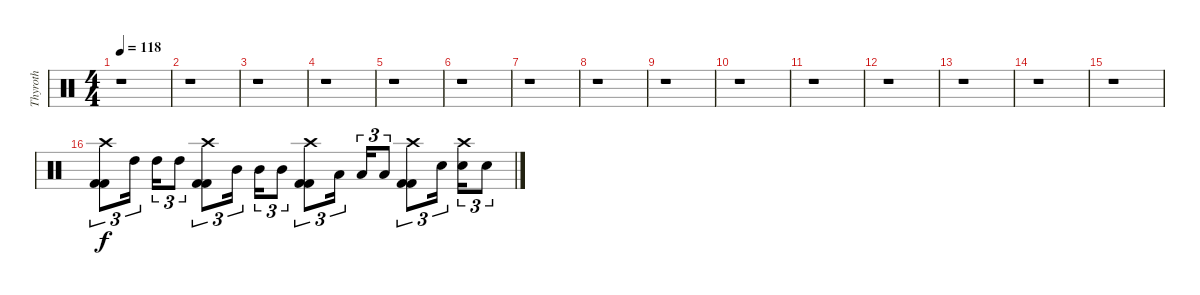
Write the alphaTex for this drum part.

\track ("Thyroth" "Thyroth") {instrument percussion}
\staff {score}
\articulation defaults
\ts (4 4)
\tempo 118
\clef neutral
\ks c
r.1{dy f} |
r.1 |
r.1 |
r.1 |
r.1 |
r.1 |
r.1 |
r.1 |
r.1 |
r.1 |
r.1 |
r.1 |
r.1 |
r.1 |
r.1 |
("Kick (hit) 2" "Kick (hit) 2" "Crash high (hit)").8{tu (3 2)} "High Tom (hit)".16{tu (3 2)} "High Tom (hit)".16{tu (3 2)} "High Tom (hit)".8{tu (3 2)} ("Kick (hit) 2" "Kick (hit) 2" "Crash high (hit)").8{tu (3 2)} "Mid Tom (hit)".16{tu (3 2)} "Mid Tom (hit)".16{tu (3 2)} "Mid Tom (hit)".8{tu (3 2)} ("Kick (hit) 2" "Kick (hit) 2" "Crash high (hit)").8{tu (3 2)} "Low Tom (hit)".16{tu (3 2)} "Low Tom (hit)".16{tu (3 2)} "Low Tom (hit)".8{tu (3 2)} ("Kick (hit) 2" "Kick (hit) 2" "Crash high (hit)").8{tu (3 2)} "Snare (hit) 2".16{tu (3 2)} ("Snare (hit) 2" "Crash high (hit)").16{tu (3 2)} "Snare (hit) 2".8{tu (3 2)}
